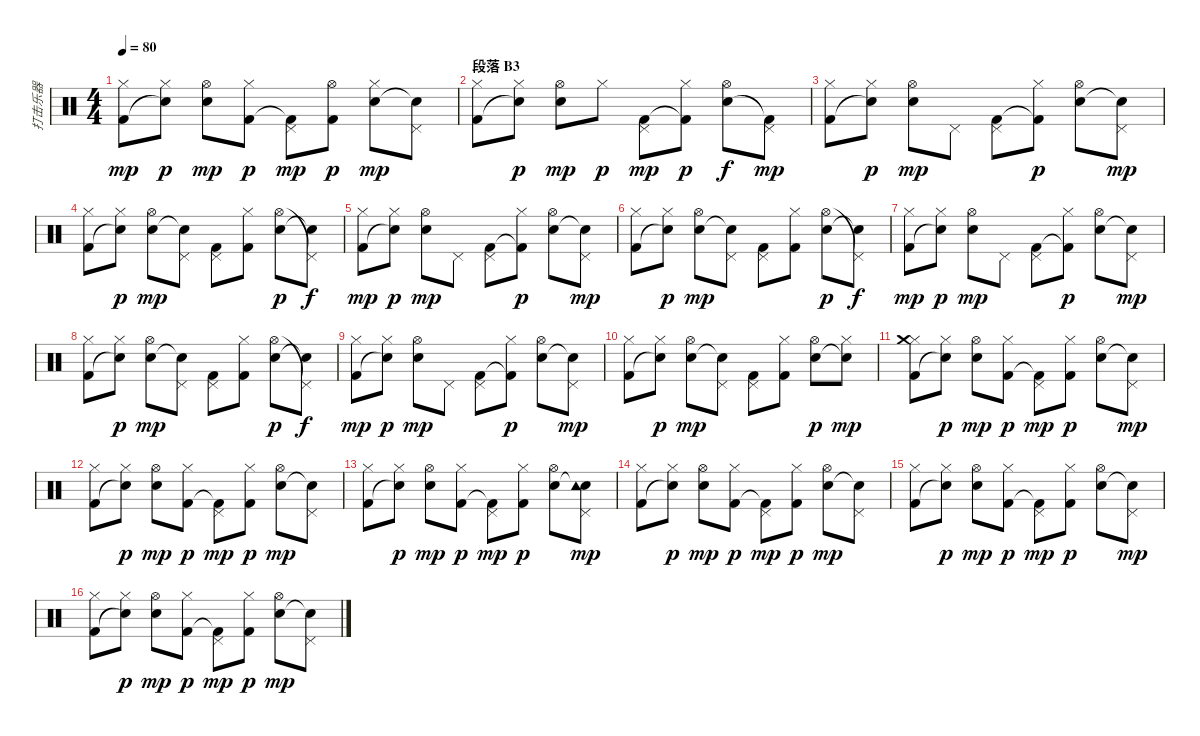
\track ("打击乐器" "打击乐器") {instrument percussion}
\staff {score}
\articulation defaults
\ts (4 4)
\tempo 80
\clef neutral
\ks c
("Hi-Hat (closed)" "Kick (hit) 2").8{dy mp} ("Hi-Hat (closed)" "Snare (hit)"{t}).8{dy p} ("Hi-Hat (open)" "Electric Snare (hit)").8{dy mp} ("Hi-Hat (closed)" "Kick (hit) 2").8{dy p} ("Pedal Hi-Hat (hit)" "Kick (hit) 2"{t}).8{dy mp} ("Hi-Hat (open)" "Kick (hit) 2").8{dy p} ("Hi-Hat (closed)" "Electric Snare (hit)").8{dy mp} ("Pedal Hi-Hat (hit)" "Snare (hit)"{t}).8 |
\section ("" "段落 B3")
("Hi-Hat (closed)" "Kick (hit) 2").8 ("Hi-Hat (closed)" "Snare (hit)"{t}).8{dy p} ("Hi-Hat (open)" "Electric Snare (hit)").8{dy mp} "Hi-Hat (closed)".8{dy p} ("Pedal Hi-Hat (hit)" "Kick (hit) 2").8{dy mp} ("Hi-Hat (closed)" "Kick (hit) 2"{t}).8{dy p} ("Hi-Hat (open)" "Electric Snare (hit)").8{dy f} ("Pedal Hi-Hat (hit)" "Kick (hit) 2"{t}).8{dy mp} |
("Hi-Hat (closed)" "Kick (hit) 2").8 ("Hi-Hat (closed)" "Snare (hit)"{t}).8{dy p} ("Hi-Hat (open)" "Electric Snare (hit)").8{dy mp} "Pedal Hi-Hat (hit)".8 ("Pedal Hi-Hat (hit)" "Kick (hit) 2").8 ("Hi-Hat (closed)" "Kick (hit) 2"{t}).8{dy p} ("Hi-Hat (open)" "Electric Snare (hit)").8 ("Pedal Hi-Hat (hit)" "Snare (hit)"{t}).8{dy mp} |
("Hi-Hat (closed)" "Kick (hit) 2").8 ("Hi-Hat (closed)" "Snare (hit)"{t}).8{dy p} ("Hi-Hat (open)" "Electric Snare (hit)").8{dy mp} ("Pedal Hi-Hat (hit)" "Snare (hit)"{t}).8 ("Pedal Hi-Hat (hit)" "Kick (hit) 2").8 ("Hi-Hat (closed)" "Kick (hit) 2").8 ("Hi-Hat (open)" "Electric Snare (hit)").8{dy p} ("Pedal Hi-Hat (hit)"{t} "Snare (hit)"{t}).8{dy f} |
("Hi-Hat (closed)" "Kick (hit) 2").8{dy mp} ("Hi-Hat (closed)" "Snare (hit)"{t}).8{dy p} ("Hi-Hat (open)" "Electric Snare (hit)").8{dy mp} "Pedal Hi-Hat (hit)".8 ("Pedal Hi-Hat (hit)" "Kick (hit) 2").8 ("Hi-Hat (closed)" "Kick (hit) 2"{t}).8{dy p} ("Hi-Hat (open)" "Electric Snare (hit)").8 ("Pedal Hi-Hat (hit)" "Snare (hit)"{t}).8{dy mp} |
("Hi-Hat (closed)" "Kick (hit) 2").8 ("Hi-Hat (closed)" "Snare (hit)"{t}).8{dy p} ("Hi-Hat (open)" "Electric Snare (hit)").8{dy mp} ("Pedal Hi-Hat (hit)" "Snare (hit)"{t}).8 ("Pedal Hi-Hat (hit)" "Kick (hit) 2").8 ("Hi-Hat (closed)" "Kick (hit) 2").8 ("Hi-Hat (open)" "Electric Snare (hit)").8{dy p} ("Pedal Hi-Hat (hit)"{t} "Snare (hit)"{t}).8{dy f} |
("Hi-Hat (closed)" "Kick (hit) 2").8{dy mp} ("Hi-Hat (closed)" "Snare (hit)"{t}).8{dy p} ("Hi-Hat (open)" "Electric Snare (hit)").8{dy mp} "Pedal Hi-Hat (hit)".8 ("Pedal Hi-Hat (hit)" "Kick (hit) 2").8 ("Hi-Hat (closed)" "Kick (hit) 2"{t}).8{dy p} ("Hi-Hat (open)" "Electric Snare (hit)").8 ("Pedal Hi-Hat (hit)" "Snare (hit)"{t}).8{dy mp} |
("Hi-Hat (closed)" "Kick (hit) 2").8 ("Hi-Hat (closed)" "Snare (hit)"{t}).8{dy p} ("Hi-Hat (open)" "Electric Snare (hit)").8{dy mp} ("Pedal Hi-Hat (hit)" "Snare (hit)"{t}).8 ("Pedal Hi-Hat (hit)" "Kick (hit) 2").8 ("Hi-Hat (closed)" "Kick (hit) 2").8 ("Hi-Hat (open)" "Electric Snare (hit)").8{dy p} ("Pedal Hi-Hat (hit)"{t} "Snare (hit)"{t}).8{dy f} |
("Hi-Hat (closed)" "Kick (hit) 2").8{dy mp} ("Hi-Hat (closed)" "Snare (hit)"{t}).8{dy p} ("Hi-Hat (open)" "Electric Snare (hit)").8{dy mp} "Pedal Hi-Hat (hit)".8 ("Pedal Hi-Hat (hit)" "Kick (hit) 2").8 ("Hi-Hat (closed)" "Kick (hit) 2"{t}).8{dy p} ("Hi-Hat (open)" "Electric Snare (hit)").8 ("Pedal Hi-Hat (hit)" "Snare (hit)"{t}).8{dy mp} |
("Hi-Hat (closed)" "Kick (hit) 2").8 ("Hi-Hat (closed)" "Snare (hit)"{t}).8{dy p} ("Hi-Hat (open)" "Electric Snare (hit)").8{dy mp} ("Pedal Hi-Hat (hit)" "Snare (hit)"{t}).8 ("Pedal Hi-Hat (hit)" "Kick (hit) 2").8 ("Hi-Hat (closed)" "Kick (hit) 2").8 ("Hi-Hat (open)" "Electric Snare (hit)").8{dy p} ("Hi-Hat (closed)" "Electric Snare (hit)"{t}).8{dy mp} |
("Hi-Hat (closed)" "Kick (hit) 2" "Crash medium (hit)").8 ("Hi-Hat (closed)" "Snare (hit)"{t}).8{dy p} ("Hi-Hat (open)" "Electric Snare (hit)").8{dy mp} ("Hi-Hat (closed)" "Kick (hit) 2").8{dy p} ("Pedal Hi-Hat (hit)" "Kick (hit) 2"{t}).8{dy mp} ("Hi-Hat (closed)" "Kick (hit) 2").8{dy p} ("Hi-Hat (open)" "Electric Snare (hit)").8 ("Pedal Hi-Hat (hit)" "Snare (hit)"{t}).8{dy mp} |
("Hi-Hat (closed)" "Kick (hit) 2").8 ("Hi-Hat (closed)" "Snare (hit)"{t}).8{dy p} ("Hi-Hat (open)" "Electric Snare (hit)").8{dy mp} ("Hi-Hat (closed)" "Kick (hit) 2").8{dy p} ("Pedal Hi-Hat (hit)" "Kick (hit) 2"{t}).8{dy mp} ("Hi-Hat (closed)" "Kick (hit) 2").8{dy p} ("Hi-Hat (open)" "Electric Snare (hit)").8{dy mp} ("Pedal Hi-Hat (hit)" "Snare (hit)"{t}).8 |
("Hi-Hat (closed)" "Kick (hit) 2").8 ("Hi-Hat (closed)" "Snare (hit)"{t}).8{dy p} ("Hi-Hat (open)" "Electric Snare (hit)").8{dy mp} ("Hi-Hat (closed)" "Kick (hit) 2").8{dy p} ("Pedal Hi-Hat (hit)" "Kick (hit) 2"{t}).8{dy mp} ("Hi-Hat (closed)" "Kick (hit) 2").8{dy p} ("Hi-Hat (open)" "Electric Snare (hit)").8 ("Pedal Hi-Hat (hit)" "Snare (hit)"{t} "Tambourine (hit)").8{dy mp} |
("Hi-Hat (closed)" "Kick (hit) 2").8 ("Hi-Hat (closed)" "Snare (hit)"{t}).8{dy p} ("Hi-Hat (open)" "Electric Snare (hit)").8{dy mp} ("Hi-Hat (closed)" "Kick (hit) 2").8{dy p} ("Pedal Hi-Hat (hit)" "Kick (hit) 2"{t}).8{dy mp} ("Hi-Hat (closed)" "Kick (hit) 2").8{dy p} ("Hi-Hat (open)" "Electric Snare (hit)").8{dy mp} ("Pedal Hi-Hat (hit)" "Snare (hit)"{t}).8 |
("Hi-Hat (closed)" "Kick (hit) 2").8 ("Hi-Hat (closed)" "Snare (hit)"{t}).8{dy p} ("Hi-Hat (open)" "Electric Snare (hit)").8{dy mp} ("Hi-Hat (closed)" "Kick (hit) 2").8{dy p} ("Pedal Hi-Hat (hit)" "Kick (hit) 2"{t}).8{dy mp} ("Hi-Hat (closed)" "Kick (hit) 2").8{dy p} ("Hi-Hat (open)" "Electric Snare (hit)").8 ("Pedal Hi-Hat (hit)" "Snare (hit)"{t}).8{dy mp} |
("Hi-Hat (closed)" "Kick (hit) 2").8 ("Hi-Hat (closed)" "Snare (hit)"{t}).8{dy p} ("Hi-Hat (open)" "Electric Snare (hit)").8{dy mp} ("Hi-Hat (closed)" "Kick (hit) 2").8{dy p} ("Pedal Hi-Hat (hit)" "Kick (hit) 2"{t}).8{dy mp} ("Hi-Hat (closed)" "Kick (hit) 2").8{dy p} ("Hi-Hat (open)" "Electric Snare (hit)").8{dy mp} ("Pedal Hi-Hat (hit)" "Snare (hit)"{t}).8
